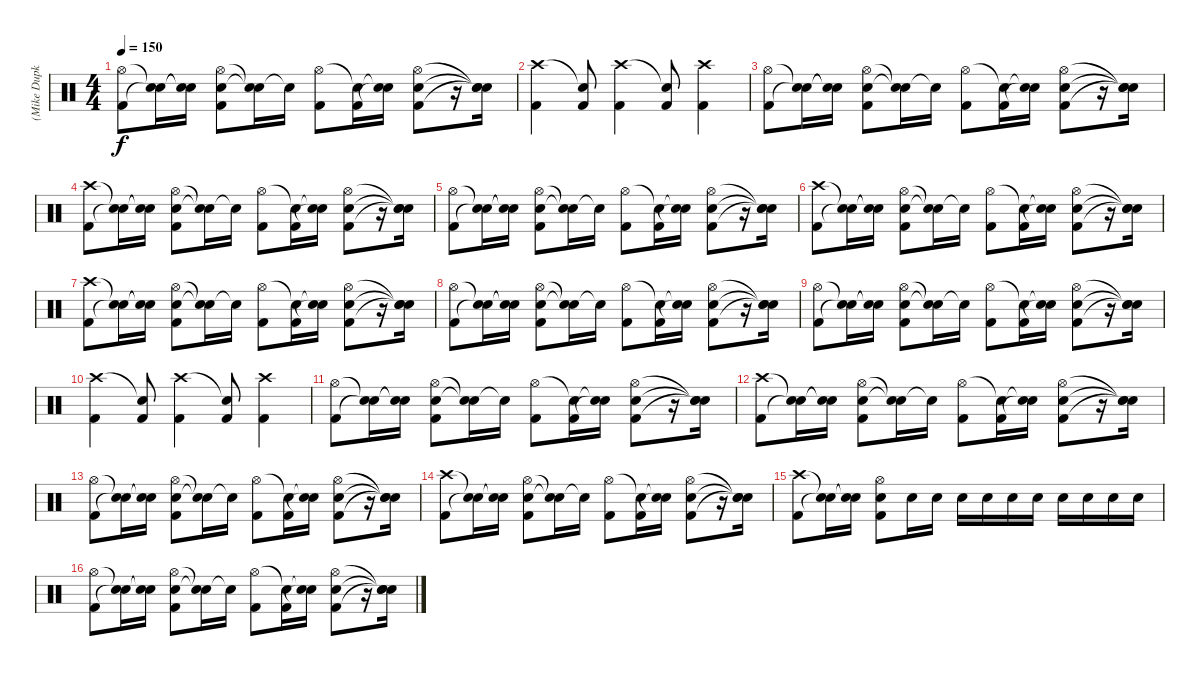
\track ("(Mike Dupke) Drums" "(Mike Dupk") {instrument percussion}
\staff {score}
\articulation defaults
\ts (4 4)
\tempo 150
\clef neutral
\ks c
("Hi-Hat (open)" "Kick (hit) 2").8{dy f} ("Snare (hit)"{t} "Snare (hit)"{t}).16 ("Snare (hit)"{t} "Snare (hit)"{t}).16 ("Hi-Hat (open)" "Snare (hit) 2" "Kick (hit) 2").8 ("Snare (hit)"{t} "Snare (hit)"{t}).16 "Snare (hit)"{t}.16 ("Hi-Hat (open)" "Kick (hit) 2").8 ("Snare (hit)"{t} "Kick (hit) 2").16 ("Snare (hit)"{t} "Snare (hit)"{t}).16 ("Hi-Hat (open)" "Snare (hit) 2" "Kick (hit) 2").8 r.16 ("Snare (hit)"{t} "Snare (hit)"{t} "Snare (hit)"{t}).16 |
("Crash high (hit)" "Kick (hit) 2").4 ("Snare (hit)"{t} "Kick (hit) 2").8 ("Crash high (hit)" "Kick (hit) 2").4 ("Snare (hit)"{t} "Kick (hit) 2").8 ("Crash high (hit)" "Kick (hit) 2").4 |
("Hi-Hat (open)" "Kick (hit) 2").8 ("Snare (hit)"{t} "Snare (hit)"{t}).16 ("Snare (hit)"{t} "Snare (hit)"{t}).16 ("Hi-Hat (open)" "Snare (hit) 2" "Kick (hit) 2").8 ("Snare (hit)"{t} "Snare (hit)"{t}).16 "Snare (hit)"{t}.16 ("Hi-Hat (open)" "Kick (hit) 2").8 ("Snare (hit)"{t} "Kick (hit) 2").16 ("Snare (hit)"{t} "Snare (hit)"{t}).16 ("Hi-Hat (open)" "Snare (hit) 2" "Kick (hit) 2").8 r.16 ("Snare (hit)"{t} "Snare (hit)"{t} "Snare (hit)"{t}).16 |
("Crash high (hit)" "Kick (hit) 2").8 ("Snare (hit)"{t} "Snare (hit)"{t}).16 ("Snare (hit)"{t} "Snare (hit)"{t}).16 ("Hi-Hat (open)" "Snare (hit) 2" "Kick (hit) 2").8 ("Snare (hit)"{t} "Snare (hit)"{t}).16 "Snare (hit)"{t}.16 ("Hi-Hat (open)" "Kick (hit) 2").8 ("Snare (hit)"{t} "Kick (hit) 2").16 ("Snare (hit)"{t} "Snare (hit)"{t}).16 ("Hi-Hat (open)" "Snare (hit) 2" "Kick (hit) 2").8 r.16 ("Snare (hit)"{t} "Snare (hit)"{t} "Snare (hit)"{t}).16 |
("Hi-Hat (open)" "Kick (hit) 2").8 ("Snare (hit)"{t} "Snare (hit)"{t}).16 ("Snare (hit)"{t} "Snare (hit)"{t}).16 ("Hi-Hat (open)" "Snare (hit) 2" "Kick (hit) 2").8 ("Snare (hit)"{t} "Snare (hit)"{t}).16 "Snare (hit)"{t}.16 ("Hi-Hat (open)" "Kick (hit) 2").8 ("Snare (hit)"{t} "Kick (hit) 2").16 ("Snare (hit)"{t} "Snare (hit)"{t}).16 ("Hi-Hat (open)" "Snare (hit) 2" "Kick (hit) 2").8 r.16 ("Snare (hit)"{t} "Snare (hit)"{t} "Snare (hit)"{t}).16 |
("Crash high (hit)" "Kick (hit) 2").8 ("Snare (hit)"{t} "Snare (hit)"{t}).16 ("Snare (hit)"{t} "Snare (hit)"{t}).16 ("Hi-Hat (open)" "Snare (hit) 2" "Kick (hit) 2").8 ("Snare (hit)"{t} "Snare (hit)"{t}).16 "Snare (hit)"{t}.16 ("Hi-Hat (open)" "Kick (hit) 2").8 ("Snare (hit)"{t} "Kick (hit) 2").16 ("Snare (hit)"{t} "Snare (hit)"{t}).16 ("Hi-Hat (open)" "Snare (hit) 2" "Kick (hit) 2").8 r.16 ("Snare (hit)"{t} "Snare (hit)"{t} "Snare (hit)"{t}).16 |
("Crash high (hit)" "Kick (hit) 2").8 ("Snare (hit)"{t} "Snare (hit)"{t}).16 ("Snare (hit)"{t} "Snare (hit)"{t}).16 ("Hi-Hat (open)" "Snare (hit) 2" "Kick (hit) 2").8 ("Snare (hit)"{t} "Snare (hit)"{t}).16 "Snare (hit)"{t}.16 ("Hi-Hat (open)" "Kick (hit) 2").8 ("Snare (hit)"{t} "Kick (hit) 2").16 ("Snare (hit)"{t} "Snare (hit)"{t}).16 ("Hi-Hat (open)" "Snare (hit) 2" "Kick (hit) 2").8 r.16 ("Snare (hit)"{t} "Snare (hit)"{t} "Snare (hit)"{t}).16 |
("Hi-Hat (open)" "Kick (hit) 2").8 ("Snare (hit)"{t} "Snare (hit)"{t}).16 ("Snare (hit)"{t} "Snare (hit)"{t}).16 ("Hi-Hat (open)" "Snare (hit) 2" "Kick (hit) 2").8 ("Snare (hit)"{t} "Snare (hit)"{t}).16 "Snare (hit)"{t}.16 ("Hi-Hat (open)" "Kick (hit) 2").8 ("Snare (hit)"{t} "Kick (hit) 2").16 ("Snare (hit)"{t} "Snare (hit)"{t}).16 ("Hi-Hat (open)" "Snare (hit) 2" "Kick (hit) 2").8 r.16 ("Snare (hit)"{t} "Snare (hit)"{t} "Snare (hit)"{t}).16 |
("Hi-Hat (open)" "Kick (hit) 2").8 ("Snare (hit)"{t} "Snare (hit)"{t}).16 ("Snare (hit)"{t} "Snare (hit)"{t}).16 ("Hi-Hat (open)" "Snare (hit) 2" "Kick (hit) 2").8 ("Snare (hit)"{t} "Snare (hit)"{t}).16 "Snare (hit)"{t}.16 ("Hi-Hat (open)" "Kick (hit) 2").8 ("Snare (hit)"{t} "Kick (hit) 2").16 ("Snare (hit)"{t} "Snare (hit)"{t}).16 ("Hi-Hat (open)" "Snare (hit) 2" "Kick (hit) 2").8 r.16 ("Snare (hit)"{t} "Snare (hit)"{t} "Snare (hit)"{t}).16 |
("Crash high (hit)" "Kick (hit) 2").4 ("Snare (hit)"{t} "Kick (hit) 2").8 ("Crash high (hit)" "Kick (hit) 2").4 ("Snare (hit)"{t} "Kick (hit) 2").8 ("Crash high (hit)" "Kick (hit) 2").4 |
("Hi-Hat (open)" "Kick (hit) 2").8 ("Snare (hit)"{t} "Snare (hit)"{t}).16 ("Snare (hit)"{t} "Snare (hit)"{t}).16 ("Hi-Hat (open)" "Snare (hit) 2" "Kick (hit) 2").8 ("Snare (hit)"{t} "Snare (hit)"{t}).16 "Snare (hit)"{t}.16 ("Hi-Hat (open)" "Kick (hit) 2").8 ("Snare (hit)"{t} "Kick (hit) 2").16 ("Snare (hit)"{t} "Snare (hit)"{t}).16 ("Hi-Hat (open)" "Snare (hit) 2" "Kick (hit) 2").8 r.16 ("Snare (hit)"{t} "Snare (hit)"{t} "Snare (hit)"{t}).16 |
("Crash high (hit)" "Kick (hit) 2").8 ("Snare (hit)"{t} "Snare (hit)"{t}).16 ("Snare (hit)"{t} "Snare (hit)"{t}).16 ("Hi-Hat (open)" "Snare (hit) 2" "Kick (hit) 2").8 ("Snare (hit)"{t} "Snare (hit)"{t}).16 "Snare (hit)"{t}.16 ("Hi-Hat (open)" "Kick (hit) 2").8 ("Snare (hit)"{t} "Kick (hit) 2").16 ("Snare (hit)"{t} "Snare (hit)"{t}).16 ("Hi-Hat (open)" "Snare (hit) 2" "Kick (hit) 2").8 r.16 ("Snare (hit)"{t} "Snare (hit)"{t} "Snare (hit)"{t}).16 |
("Hi-Hat (open)" "Kick (hit) 2").8 ("Snare (hit)"{t} "Snare (hit)"{t}).16 ("Snare (hit)"{t} "Snare (hit)"{t}).16 ("Hi-Hat (open)" "Snare (hit) 2" "Kick (hit) 2").8 ("Snare (hit)"{t} "Snare (hit)"{t}).16 "Snare (hit)"{t}.16 ("Hi-Hat (open)" "Kick (hit) 2").8 ("Snare (hit)"{t} "Kick (hit) 2").16 ("Snare (hit)"{t} "Snare (hit)"{t}).16 ("Hi-Hat (open)" "Snare (hit) 2" "Kick (hit) 2").8 r.16 ("Snare (hit)"{t} "Snare (hit)"{t} "Snare (hit)"{t}).16 |
("Crash high (hit)" "Kick (hit) 2").8 ("Snare (hit)"{t} "Snare (hit)"{t}).16 ("Snare (hit)"{t} "Snare (hit)"{t}).16 ("Hi-Hat (open)" "Snare (hit) 2" "Kick (hit) 2").8 ("Snare (hit)"{t} "Snare (hit)"{t}).16 "Snare (hit)"{t}.16 ("Hi-Hat (open)" "Kick (hit) 2").8 ("Snare (hit)"{t} "Kick (hit) 2").16 ("Snare (hit)"{t} "Snare (hit)"{t}).16 ("Hi-Hat (open)" "Snare (hit) 2" "Kick (hit) 2").8 r.16 ("Snare (hit)"{t} "Snare (hit)"{t} "Snare (hit)"{t}).16 |
("Crash high (hit)" "Kick (hit) 2").8 ("Snare (hit)"{t} "Snare (hit)"{t}).16 ("Snare (hit)"{t} "Snare (hit)"{t}).16 ("Hi-Hat (open)" "Snare (hit) 2" "Kick (hit) 2").8 "Snare (hit) 2".16 "Snare (hit) 2".16 "Snare (hit) 2".16 "Snare (hit) 2".16 "Snare (hit) 2".16 "Snare (hit) 2".16 "Snare (hit) 2".16 "Snare (hit) 2".16 "Snare (hit) 2".16 "Snare (hit) 2".16 |
("Hi-Hat (open)" "Kick (hit) 2").8 ("Snare (hit)"{t} "Snare (hit)"{t}).16 ("Snare (hit)"{t} "Snare (hit)"{t}).16 ("Hi-Hat (open)" "Snare (hit) 2" "Kick (hit) 2").8 ("Snare (hit)"{t} "Snare (hit)"{t}).16 "Snare (hit)"{t}.16 ("Hi-Hat (open)" "Kick (hit) 2").8 ("Snare (hit)"{t} "Kick (hit) 2").16 ("Snare (hit)"{t} "Snare (hit)"{t}).16 ("Hi-Hat (open)" "Snare (hit) 2" "Kick (hit) 2").8 r.16 ("Snare (hit)"{t} "Snare (hit)"{t} "Snare (hit)"{t}).16
